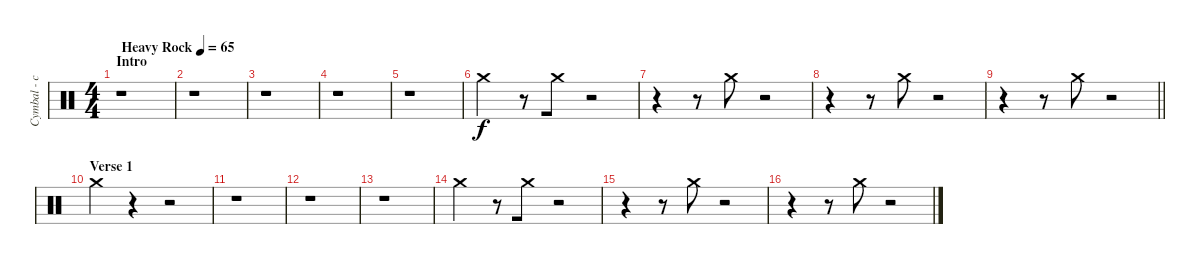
\track ("Cymbal - crash - right" "Cymbal - c") {instrument percussion}
\staff {score}
\articulation defaults
\ts (4 4)
\section ("" "Intro")
\tempo (65 "Heavy Rock")
\clef neutral
\ks c
r.1{dy f volume 11 balance 11} |
r.1 |
r.1 |
r.1 |
r.1 |
"Crash medium (hit)".4{beam merge} r.8 "Crash medium (hit)".8 r.2 |
r.4{beam merge} r.8 "Crash medium (hit)".8 r.2 |
r.4{beam merge} r.8 "Crash medium (hit)".8 r.2 |
\barLineRight lightlight
r.4{beam merge} r.8 "Crash medium (hit)".8 r.2 |
\section ("" "Verse 1")
"Crash medium (hit)".4{volume 0} r.4 r.2 |
r.1 |
r.1 |
r.1 |
"Crash medium (hit)".4{volume 11 beam merge} r.8 "Crash medium (hit)".8 r.2 |
r.4{beam merge} r.8 "Crash medium (hit)".8 r.2 |
r.4{beam merge} r.8 "Crash medium (hit)".8 r.2
